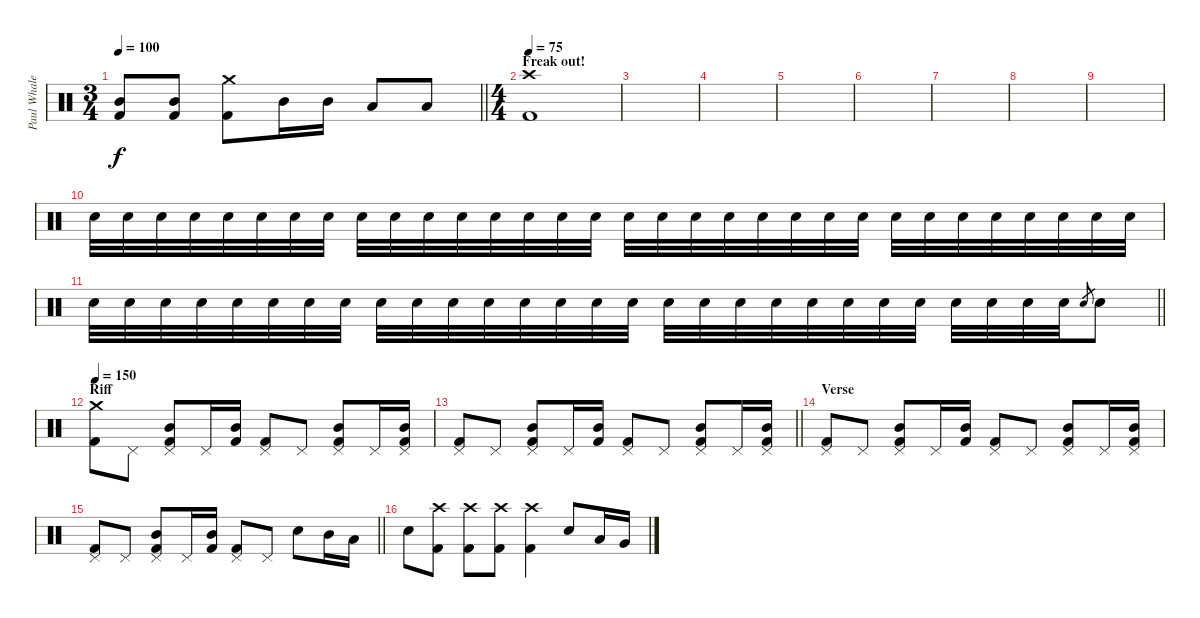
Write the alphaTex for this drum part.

\track ("Paul Whaley" "Paul Whale") {instrument percussion}
\staff {score}
\articulation defaults
\ts (3 4)
\tempo 100
\clef neutral
\barLineRight lightlight
\ks c
("Kick (hit) 2" "Mid Tom (hit)").8{dy f} ("Kick (hit) 2" "Mid Tom (hit)").8 ("Kick (hit) 2" "Crash medium (hit)").8 "Mid Tom (hit)".16 "Mid Tom (hit)".16 "Low Tom (hit)".8 "Low Tom (hit)".8 |
\ts (4 4)
\section ("" "Freak out!")
\tempo 75
("Kick (hit) 2" "Crash high (hit)").1 |
|
|
|
|
|
|
|
"Snare (hit) 2".32 "Snare (hit) 2".32 "Snare (hit) 2".32 "Snare (hit) 2".32 "Snare (hit) 2".32 "Snare (hit) 2".32 "Snare (hit) 2".32 "Snare (hit) 2".32 "Snare (hit) 2".32 "Snare (hit) 2".32 "Snare (hit) 2".32 "Snare (hit) 2".32 "Snare (hit) 2".32 "Snare (hit) 2".32 "Snare (hit) 2".32 "Snare (hit) 2".32 "Snare (hit) 2".32 "Snare (hit) 2".32 "Snare (hit) 2".32 "Snare (hit) 2".32 "Snare (hit) 2".32 "Snare (hit) 2".32 "Snare (hit) 2".32 "Snare (hit) 2".32 "Snare (hit) 2".32 "Snare (hit) 2".32 "Snare (hit) 2".32 "Snare (hit) 2".32 "Snare (hit) 2".32 "Snare (hit) 2".32 "Snare (hit) 2".32 "Snare (hit) 2".32 |
\barLineRight lightlight "Snare (hit) 2".32 "Snare (hit) 2".32 "Snare (hit) 2".32 "Snare (hit) 2".32 "Snare (hit) 2".32 "Snare (hit) 2".32 "Snare (hit) 2".32 "Snare (hit) 2".32 "Snare (hit) 2".32 "Snare (hit) 2".32 "Snare (hit) 2".32 "Snare (hit) 2".32 "Snare (hit) 2".32 "Snare (hit) 2".32 "Snare (hit) 2".32 "Snare (hit) 2".32 "Snare (hit) 2".32 "Snare (hit) 2".32 "Snare (hit) 2".32 "Snare (hit) 2".32 "Snare (hit) 2".32 "Snare (hit) 2".32 "Snare (hit) 2".32 "Snare (hit) 2".32 "Snare (hit) 2".32 "Snare (hit) 2".32 "Snare (hit) 2".32 "Snare (hit) 2".32 "Snare (hit) 2".8{gr} "Snare (hit) 2".8
|
\section ("" "Riff")
\tempo 150
("Kick (hit) 2" "Crash medium (hit)").8 "Pedal Hi-Hat (hit)".8 ("Kick (hit) 2" "Mid Tom (hit)" "Pedal Hi-Hat (hit)").8 "Pedal Hi-Hat (hit)".16 ("Kick (hit) 2" "Mid Tom (hit)").16 ("Kick (hit) 2" "Pedal Hi-Hat (hit)").8 "Pedal Hi-Hat (hit)".8 ("Kick (hit) 2" "Mid Tom (hit)" "Pedal Hi-Hat (hit)").8 "Pedal Hi-Hat (hit)".16 ("Kick (hit) 2" "Mid Tom (hit)" "Pedal Hi-Hat (hit)").16 |
\barLineRight lightlight
("Kick (hit) 2" "Pedal Hi-Hat (hit)").8 "Pedal Hi-Hat (hit)".8 ("Kick (hit) 2" "Mid Tom (hit)" "Pedal Hi-Hat (hit)").8 "Pedal Hi-Hat (hit)".16 ("Kick (hit) 2" "Mid Tom (hit)").16 ("Kick (hit) 2" "Pedal Hi-Hat (hit)").8 "Pedal Hi-Hat (hit)".8 ("Kick (hit) 2" "Mid Tom (hit)" "Pedal Hi-Hat (hit)").8 "Pedal Hi-Hat (hit)".16 ("Kick (hit) 2" "Mid Tom (hit)" "Pedal Hi-Hat (hit)").16 |
\section ("" "Verse")
("Kick (hit) 2" "Pedal Hi-Hat (hit)").8 "Pedal Hi-Hat (hit)".8 ("Kick (hit) 2" "Mid Tom (hit)" "Pedal Hi-Hat (hit)").8 "Pedal Hi-Hat (hit)".16 ("Kick (hit) 2" "Mid Tom (hit)").16 ("Kick (hit) 2" "Pedal Hi-Hat (hit)").8 "Pedal Hi-Hat (hit)".8 ("Kick (hit) 2" "Mid Tom (hit)" "Pedal Hi-Hat (hit)").8 "Pedal Hi-Hat (hit)".16 ("Kick (hit) 2" "Mid Tom (hit)" "Pedal Hi-Hat (hit)").16 |
\barLineRight lightlight
("Kick (hit) 2" "Pedal Hi-Hat (hit)").8 "Pedal Hi-Hat (hit)".8 ("Kick (hit) 2" "Mid Tom (hit)" "Pedal Hi-Hat (hit)").8 "Pedal Hi-Hat (hit)".16 ("Kick (hit) 2" "Mid Tom (hit)").16 ("Kick (hit) 2" "Pedal Hi-Hat (hit)").8 "Pedal Hi-Hat (hit)".8 "Snare (hit) 2".8 "Mid Tom (hit)".16 "Low Tom (hit)".16 |
"Snare (hit) 2".8 ("Kick (hit) 2" "Crash high (hit)").8 ("Kick (hit) 2" "Crash high (hit)").8 ("Kick (hit) 2" "Crash high (hit)").8 ("Kick (hit) 2" "Crash high (hit)").4 "Snare (hit) 2".8 "Low Tom (hit)".16 "Very Low Tom (hit)".16
